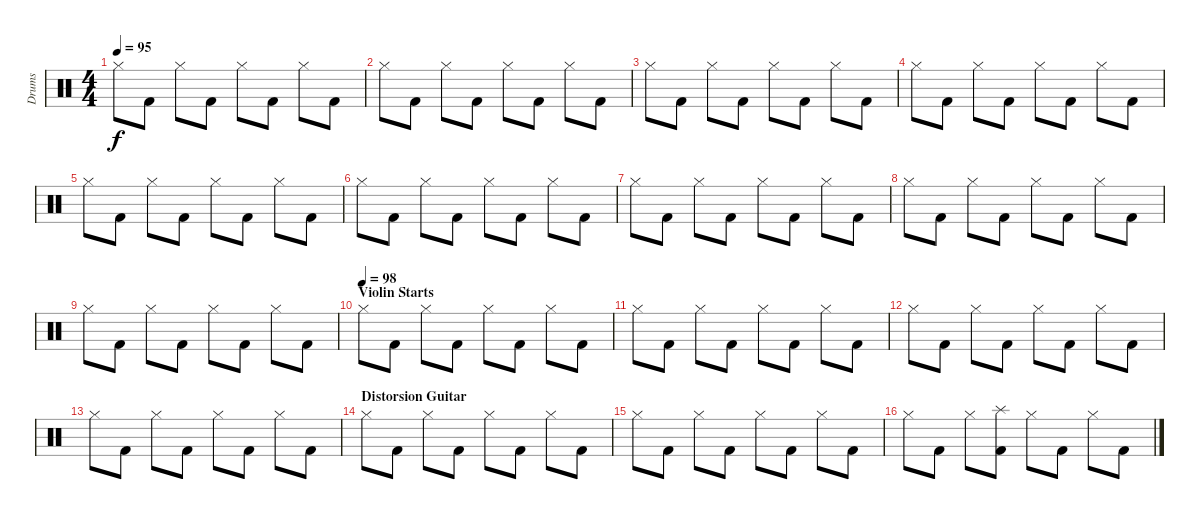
\track ("Drums" "Drums") {instrument percussion}
\staff {score}
\articulation defaults
\ts (4 4)
\tempo 95
\clef neutral
\ks c "Hi-Hat (closed)".8{dy f} "Kick (hit) 2".8 "Hi-Hat (closed)".8 "Kick (hit) 2".8 "Hi-Hat (closed)".8 "Kick (hit) 2".8 "Hi-Hat (closed)".8 "Kick (hit) 2".8
|
"Hi-Hat (closed)".8 "Kick (hit) 2".8 "Hi-Hat (closed)".8 "Kick (hit) 2".8 "Hi-Hat (closed)".8 "Kick (hit) 2".8 "Hi-Hat (closed)".8 "Kick (hit) 2".8 |
"Hi-Hat (closed)".8 "Kick (hit) 2".8 "Hi-Hat (closed)".8 "Kick (hit) 2".8 "Hi-Hat (closed)".8 "Kick (hit) 2".8 "Hi-Hat (closed)".8 "Kick (hit) 2".8 |
"Hi-Hat (closed)".8 "Kick (hit) 2".8 "Hi-Hat (closed)".8 "Kick (hit) 2".8 "Hi-Hat (closed)".8 "Kick (hit) 2".8 "Hi-Hat (closed)".8 "Kick (hit) 2".8 |
"Hi-Hat (closed)".8 "Kick (hit) 2".8 "Hi-Hat (closed)".8 "Kick (hit) 2".8 "Hi-Hat (closed)".8 "Kick (hit) 2".8 "Hi-Hat (closed)".8 "Kick (hit) 2".8 |
"Hi-Hat (closed)".8 "Kick (hit) 2".8 "Hi-Hat (closed)".8 "Kick (hit) 2".8 "Hi-Hat (closed)".8 "Kick (hit) 2".8 "Hi-Hat (closed)".8 "Kick (hit) 2".8 |
"Hi-Hat (closed)".8 "Kick (hit) 2".8 "Hi-Hat (closed)".8 "Kick (hit) 2".8 "Hi-Hat (closed)".8 "Kick (hit) 2".8 "Hi-Hat (closed)".8 "Kick (hit) 2".8 |
"Hi-Hat (closed)".8 "Kick (hit) 2".8 "Hi-Hat (closed)".8 "Kick (hit) 2".8 "Hi-Hat (closed)".8 "Kick (hit) 2".8 "Hi-Hat (closed)".8 "Kick (hit) 2".8 |
"Hi-Hat (closed)".8 "Kick (hit) 2".8 "Hi-Hat (closed)".8 "Kick (hit) 2".8 "Hi-Hat (closed)".8 "Kick (hit) 2".8 "Hi-Hat (closed)".8 "Kick (hit) 2".8 |
\section ("" "Violin Starts")
\tempo (98)
"Hi-Hat (closed)".8 "Kick (hit) 2".8 "Hi-Hat (closed)".8 "Kick (hit) 2".8 "Hi-Hat (closed)".8 "Kick (hit) 2".8 "Hi-Hat (closed)".8 "Kick (hit) 2".8 |
"Hi-Hat (closed)".8 "Kick (hit) 2".8 "Hi-Hat (closed)".8 "Kick (hit) 2".8 "Hi-Hat (closed)".8 "Kick (hit) 2".8 "Hi-Hat (closed)".8 "Kick (hit) 2".8 |
"Hi-Hat (closed)".8 "Kick (hit) 2".8 "Hi-Hat (closed)".8 "Kick (hit) 2".8 "Hi-Hat (closed)".8 "Kick (hit) 2".8 "Hi-Hat (closed)".8 "Kick (hit) 2".8 |
"Hi-Hat (closed)".8 "Kick (hit) 2".8 "Hi-Hat (closed)".8 "Kick (hit) 2".8 "Hi-Hat (closed)".8 "Kick (hit) 2".8 "Hi-Hat (closed)".8 "Kick (hit) 2".8 |
\section ("" "Distorsion Guitar")
"Hi-Hat (closed)".8 "Kick (hit) 2".8 "Hi-Hat (closed)".8 "Kick (hit) 2".8 "Hi-Hat (closed)".8 "Kick (hit) 2".8 "Hi-Hat (closed)".8 "Kick (hit) 2".8 |
"Hi-Hat (closed)".8 "Kick (hit) 2".8 "Hi-Hat (closed)".8 "Kick (hit) 2".8 "Hi-Hat (closed)".8 "Kick (hit) 2".8 "Hi-Hat (closed)".8 "Kick (hit) 2".8 |
"Hi-Hat (closed)".8 "Kick (hit) 2".8 "Hi-Hat (closed)".8 ("Splash (hit)" "Kick (hit) 2").8 "Hi-Hat (closed)".8 "Kick (hit) 2".8 "Hi-Hat (closed)".8 "Kick (hit) 2".8
